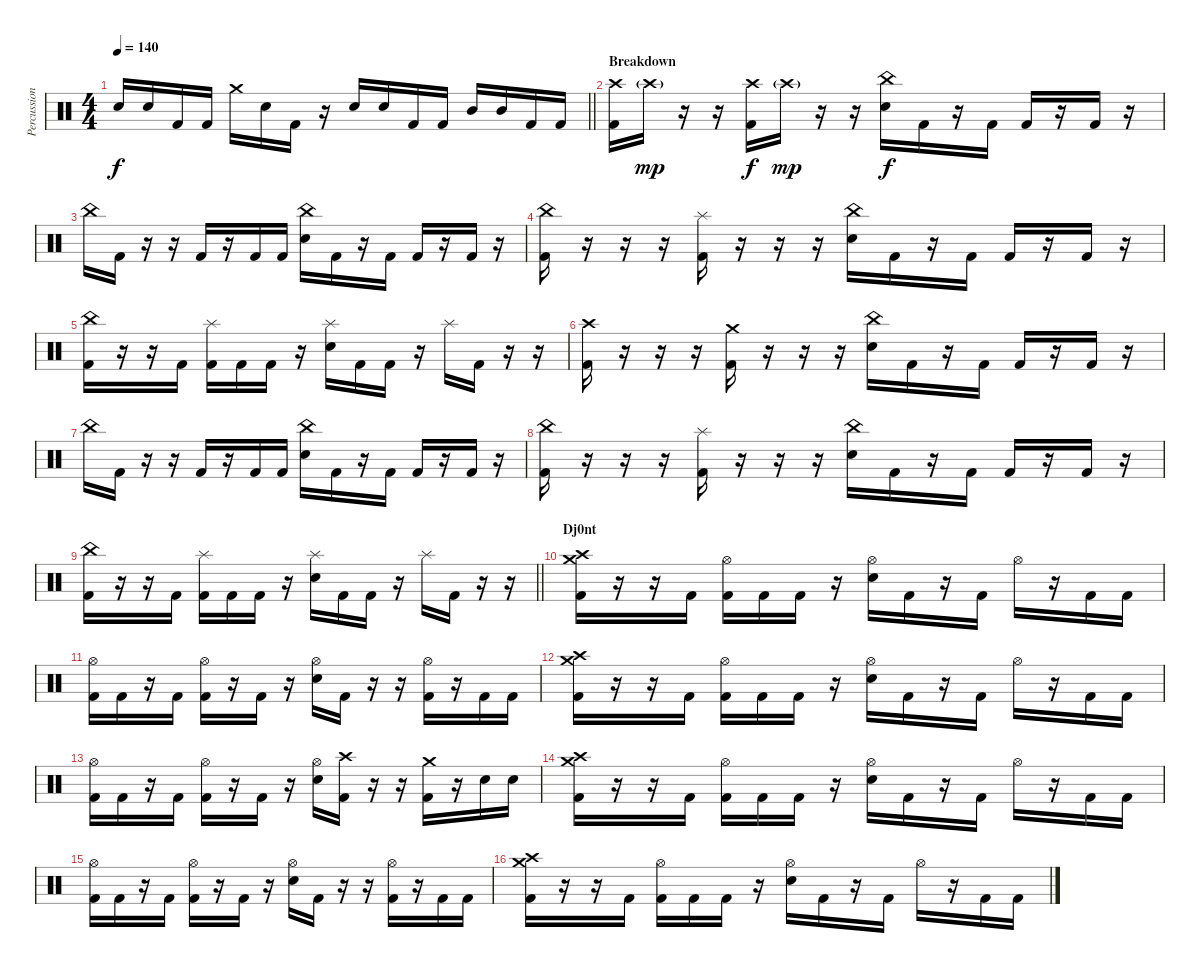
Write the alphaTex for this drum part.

\track ("Percussion" "Percussion") {instrument percussion}
\staff {score}
\articulation defaults
\ts (4 4)
\tempo 140
\clef neutral
\barLineRight lightlight
\ks c "Electric Snare (hit)".16{dy f} "Electric Snare (hit)".16 "Kick (hit) 2".16 "Kick (hit) 2".16 "Crash medium (hit)".16 "Electric Snare (hit)".16 "Kick (hit) 2".16
r.16 "Electric Snare (hit)".16 "Electric Snare (hit)".16 "Kick (hit) 2".16 "Kick (hit) 2".16 "Mid Tom (hit)".16 "Mid Tom (hit)".16 "Kick (hit) 2".16 "Kick (hit) 2".16 |
\section ("" "Breakdown")
("Crash high (hit)" "Kick (hit) 2").16 "Crash high (hit)"{g}.16{dy mp} r.16 r.16 ("Crash high (hit)" "Kick (hit) 2").16{dy f} "Crash high (hit)"{g}.16{dy mp} r.16 r.16 ("China (hit)" "Electric Snare (hit)").16{dy f} "Kick (hit) 2".16 r.16 "Kick (hit) 2".16 "Kick (hit) 2".16 r.16 "Kick (hit) 2".16 r.16 |
"China (hit)".16 "Kick (hit) 2".16 r.16 r.16 "Kick (hit) 2".16 r.16 "Kick (hit) 2".16 "Kick (hit) 2".16 ("China (hit)" "Electric Snare (hit)").16 "Kick (hit) 2".16 r.16 "Kick (hit) 2".16 "Kick (hit) 2".16 r.16 "Kick (hit) 2".16 r.16 |
("China (hit)" "Kick (hit) 2").16 r.16 r.16 r.16 ("Splash (hit)" "Kick (hit) 2").16 r.16 r.16 r.16 ("China (hit)" "Electric Snare (hit)").16 "Kick (hit) 2".16 r.16 "Kick (hit) 2".16 "Kick (hit) 2".16 r.16 "Kick (hit) 2".16 r.16 |
("China (hit)" "Kick (hit) 2").16 r.16 r.16 "Kick (hit) 2".16 ("Splash (hit)" "Kick (hit) 2").16 "Kick (hit) 2".16 "Kick (hit) 2".16 r.16 ("Splash (hit)" "Electric Snare (hit)").16 "Kick (hit) 2".16 "Kick (hit) 2".16 r.16 "Splash (hit)".16 "Kick (hit) 2".16 r.16 r.16 |
("Crash high (hit)" "Kick (hit) 2").16 r.16 r.16 r.16 ("Crash medium (hit)" "Kick (hit) 2").16 r.16 r.16 r.16 ("China (hit)" "Electric Snare (hit)").16 "Kick (hit) 2".16 r.16 "Kick (hit) 2".16 "Kick (hit) 2".16 r.16 "Kick (hit) 2".16 r.16 |
"China (hit)".16 "Kick (hit) 2".16 r.16 r.16 "Kick (hit) 2".16 r.16 "Kick (hit) 2".16 "Kick (hit) 2".16 ("China (hit)" "Electric Snare (hit)").16 "Kick (hit) 2".16 r.16 "Kick (hit) 2".16 "Kick (hit) 2".16 r.16 "Kick (hit) 2".16 r.16 |
("China (hit)" "Kick (hit) 2").16 r.16 r.16 r.16 ("Splash (hit)" "Kick (hit) 2").16 r.16 r.16 r.16 ("China (hit)" "Electric Snare (hit)").16 "Kick (hit) 2".16 r.16 "Kick (hit) 2".16 "Kick (hit) 2".16 r.16 "Kick (hit) 2".16 r.16 |
\barLineRight lightlight
("China (hit)" "Kick (hit) 2").16 r.16 r.16 "Kick (hit) 2".16 ("Splash (hit)" "Kick (hit) 2").16 "Kick (hit) 2".16 "Kick (hit) 2".16 r.16 ("Splash (hit)" "Electric Snare (hit)").16 "Kick (hit) 2".16 "Kick (hit) 2".16 r.16 "Splash (hit)".16 "Kick (hit) 2".16 r.16 r.16 |
\section ("" "Dj0nt")
("Crash high (hit)" "Crash medium (hit)" "Kick (hit) 2").16 r.16 r.16 "Kick (hit) 2".16 ("Hi-Hat (open)" "Kick (hit) 2").16 "Kick (hit) 2".16 "Kick (hit) 2".16 r.16 ("Hi-Hat (open)" "Electric Snare (hit)").16 "Kick (hit) 2".16 r.16 "Kick (hit) 2".16 "Hi-Hat (open)".16 r.16 "Kick (hit) 2".16 "Kick (hit) 2".16 |
("Hi-Hat (open)" "Kick (hit) 2").16 "Kick (hit) 2".16 r.16 "Kick (hit) 2".16 ("Hi-Hat (open)" "Kick (hit) 2").16 r.16 "Kick (hit) 2".16 r.16 ("Hi-Hat (open)" "Electric Snare (hit)").16 "Kick (hit) 2".16 r.16 r.16 ("Hi-Hat (open)" "Kick (hit) 2").16 r.16 "Kick (hit) 2".16 "Kick (hit) 2".16 |
("Crash high (hit)" "Crash medium (hit)" "Kick (hit) 2").16 r.16 r.16 "Kick (hit) 2".16 ("Hi-Hat (open)" "Kick (hit) 2").16 "Kick (hit) 2".16 "Kick (hit) 2".16 r.16 ("Hi-Hat (open)" "Electric Snare (hit)").16 "Kick (hit) 2".16 r.16 "Kick (hit) 2".16 "Hi-Hat (open)".16 r.16 "Kick (hit) 2".16 "Kick (hit) 2".16 |
("Hi-Hat (open)" "Kick (hit) 2").16 "Kick (hit) 2".16 r.16 "Kick (hit) 2".16 ("Hi-Hat (open)" "Kick (hit) 2").16 r.16 "Kick (hit) 2".16 r.16 ("Hi-Hat (open)" "Electric Snare (hit)").16 ("Crash high (hit)" "Kick (hit) 2").16 r.16 r.16 ("Crash medium (hit)" "Kick (hit) 2").16 r.16 "Electric Snare (hit)".16 "Electric Snare (hit)".16 |
("Crash high (hit)" "Crash medium (hit)" "Kick (hit) 2").16 r.16 r.16 "Kick (hit) 2".16 ("Hi-Hat (open)" "Kick (hit) 2").16 "Kick (hit) 2".16 "Kick (hit) 2".16 r.16 ("Hi-Hat (open)" "Electric Snare (hit)").16 "Kick (hit) 2".16 r.16 "Kick (hit) 2".16 "Hi-Hat (open)".16 r.16 "Kick (hit) 2".16 "Kick (hit) 2".16 |
("Hi-Hat (open)" "Kick (hit) 2").16 "Kick (hit) 2".16 r.16 "Kick (hit) 2".16 ("Hi-Hat (open)" "Kick (hit) 2").16 r.16 "Kick (hit) 2".16 r.16 ("Hi-Hat (open)" "Electric Snare (hit)").16 "Kick (hit) 2".16 r.16 r.16 ("Hi-Hat (open)" "Kick (hit) 2").16 r.16 "Kick (hit) 2".16 "Kick (hit) 2".16 |
("Crash high (hit)" "Crash medium (hit)" "Kick (hit) 2").16 r.16 r.16 "Kick (hit) 2".16 ("Hi-Hat (open)" "Kick (hit) 2").16 "Kick (hit) 2".16 "Kick (hit) 2".16 r.16 ("Hi-Hat (open)" "Electric Snare (hit)").16 "Kick (hit) 2".16 r.16 "Kick (hit) 2".16 "Hi-Hat (open)".16 r.16 "Kick (hit) 2".16 "Kick (hit) 2".16
